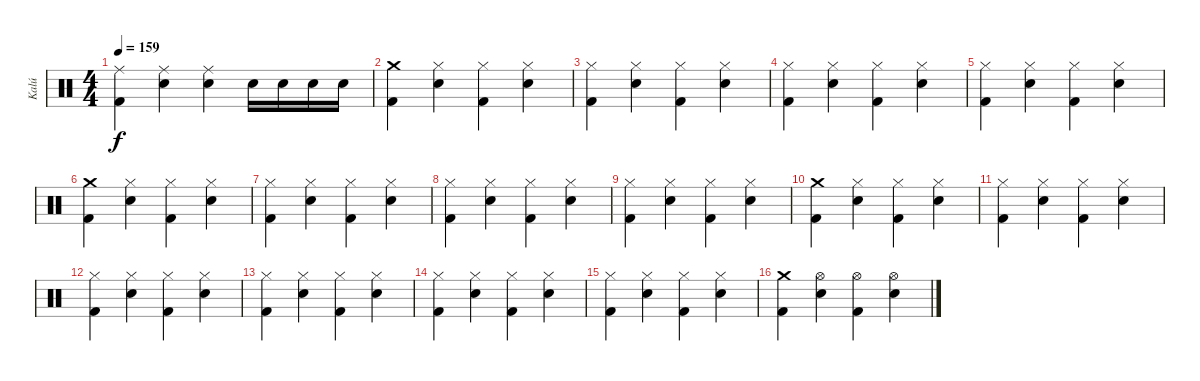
\track ("Kalú" "Kalú") {instrument percussion}
\staff {score}
\articulation defaults
\ts (4 4)
\tempo 159
\clef neutral
\ks c
("Ride (middle)" "Kick (hit) 2").4{dy f} ("Ride (middle)" "Electric Snare (hit)").4 ("Ride (middle)" "Electric Snare (hit)").4 "Electric Snare (hit)".16 "Electric Snare (hit)".16 "Electric Snare (hit)".16 "Electric Snare (hit)".16 |
("Crash medium (hit)" "Kick (hit) 2").4 ("Hi-Hat (closed)" "Electric Snare (hit)").4 ("Hi-Hat (closed)" "Kick (hit) 2").4 ("Hi-Hat (closed)" "Electric Snare (hit)").4 |
("Hi-Hat (closed)" "Kick (hit) 2").4 ("Hi-Hat (closed)" "Electric Snare (hit)").4 ("Hi-Hat (closed)" "Kick (hit) 2").4 ("Hi-Hat (closed)" "Electric Snare (hit)").4 |
("Hi-Hat (closed)" "Kick (hit) 2").4 ("Hi-Hat (closed)" "Electric Snare (hit)").4 ("Hi-Hat (closed)" "Kick (hit) 2").4 ("Hi-Hat (closed)" "Electric Snare (hit)").4 |
("Hi-Hat (closed)" "Kick (hit) 2").4 ("Hi-Hat (closed)" "Electric Snare (hit)").4 ("Hi-Hat (closed)" "Kick (hit) 2").4 ("Hi-Hat (closed)" "Electric Snare (hit)").4 |
("Crash medium (hit)" "Kick (hit) 2").4 ("Hi-Hat (closed)" "Electric Snare (hit)").4 ("Hi-Hat (closed)" "Kick (hit) 2").4 ("Hi-Hat (closed)" "Electric Snare (hit)").4 |
("Hi-Hat (closed)" "Kick (hit) 2").4 ("Hi-Hat (closed)" "Electric Snare (hit)").4 ("Hi-Hat (closed)" "Kick (hit) 2").4 ("Hi-Hat (closed)" "Electric Snare (hit)").4 |
("Hi-Hat (closed)" "Kick (hit) 2").4 ("Hi-Hat (closed)" "Electric Snare (hit)").4 ("Hi-Hat (closed)" "Kick (hit) 2").4 ("Hi-Hat (closed)" "Electric Snare (hit)").4 |
("Hi-Hat (closed)" "Kick (hit) 2").4 ("Hi-Hat (closed)" "Electric Snare (hit)").4 ("Hi-Hat (closed)" "Kick (hit) 2").4 ("Hi-Hat (closed)" "Electric Snare (hit)").4 |
("Crash medium (hit)" "Kick (hit) 2").4 ("Hi-Hat (closed)" "Electric Snare (hit)").4 ("Hi-Hat (closed)" "Kick (hit) 2").4 ("Hi-Hat (closed)" "Electric Snare (hit)").4 |
("Hi-Hat (closed)" "Kick (hit) 2").4 ("Hi-Hat (closed)" "Electric Snare (hit)").4 ("Hi-Hat (closed)" "Kick (hit) 2").4 ("Hi-Hat (closed)" "Electric Snare (hit)").4 |
("Hi-Hat (closed)" "Kick (hit) 2").4 ("Hi-Hat (closed)" "Electric Snare (hit)").4 ("Hi-Hat (closed)" "Kick (hit) 2").4 ("Hi-Hat (closed)" "Electric Snare (hit)").4 |
("Hi-Hat (closed)" "Kick (hit) 2").4 ("Hi-Hat (closed)" "Electric Snare (hit)").4 ("Hi-Hat (closed)" "Kick (hit) 2").4 ("Hi-Hat (closed)" "Electric Snare (hit)").4 |
("Hi-Hat (closed)" "Kick (hit) 2").4 ("Hi-Hat (closed)" "Electric Snare (hit)").4 ("Hi-Hat (closed)" "Kick (hit) 2").4 ("Hi-Hat (closed)" "Electric Snare (hit)").4 |
("Hi-Hat (closed)" "Kick (hit) 2").4 ("Hi-Hat (closed)" "Electric Snare (hit)").4 ("Hi-Hat (closed)" "Kick (hit) 2").4 ("Hi-Hat (closed)" "Electric Snare (hit)").4 |
("Crash medium (hit)" "Kick (hit) 2").4 ("Hi-Hat (open)" "Electric Snare (hit)").4 ("Hi-Hat (open)" "Kick (hit) 2").4 ("Hi-Hat (open)" "Electric Snare (hit)").4
